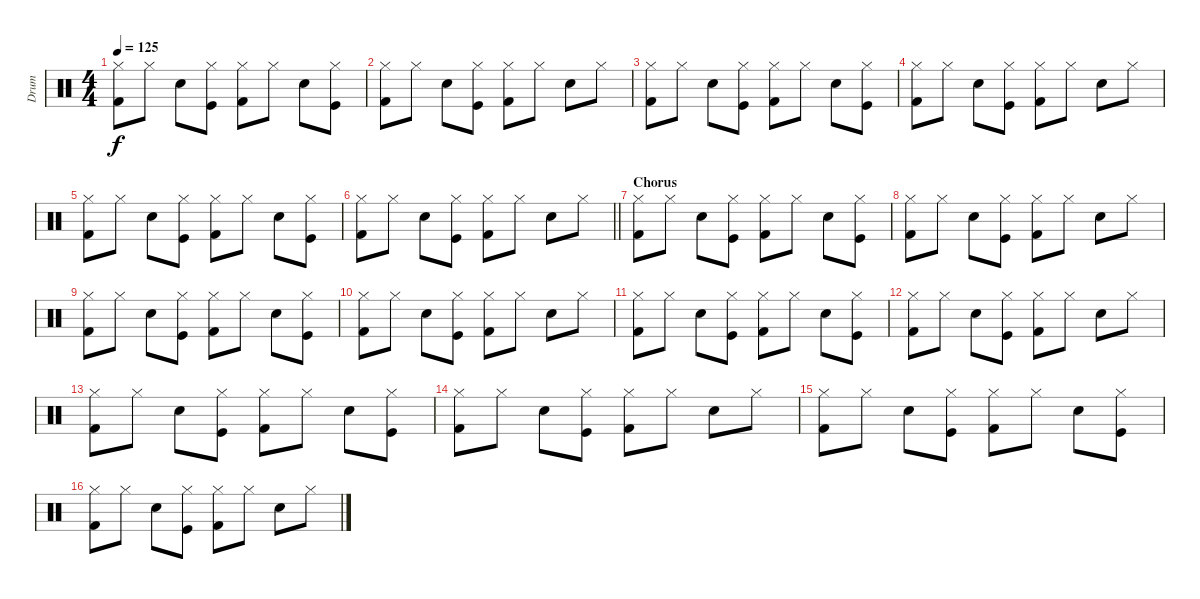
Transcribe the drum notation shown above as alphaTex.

\track ("Drum" "Drum") {instrument percussion}
\staff {score}
\articulation defaults
\ts (4 4)
\tempo 125
\clef neutral
\ks c
("Hi-Hat (closed)" "Kick (hit) 2").8{dy f} "Hi-Hat (closed)".8 "Electric Snare (hit)".8 ("Hi-Hat (closed)" "Kick (hit)").8 ("Hi-Hat (closed)" "Kick (hit) 2").8 "Hi-Hat (closed)".8 "Electric Snare (hit)".8 ("Hi-Hat (closed)" "Kick (hit)").8 |
("Hi-Hat (closed)" "Kick (hit) 2").8 "Hi-Hat (closed)".8 "Electric Snare (hit)".8 ("Hi-Hat (closed)" "Kick (hit)").8 ("Hi-Hat (closed)" "Kick (hit) 2").8 "Hi-Hat (closed)".8 "Electric Snare (hit)".8 "Hi-Hat (closed)".8 |
("Hi-Hat (closed)" "Kick (hit) 2").8 "Hi-Hat (closed)".8 "Electric Snare (hit)".8 ("Hi-Hat (closed)" "Kick (hit)").8 ("Hi-Hat (closed)" "Kick (hit) 2").8 "Hi-Hat (closed)".8 "Electric Snare (hit)".8 ("Hi-Hat (closed)" "Kick (hit)").8 |
("Hi-Hat (closed)" "Kick (hit) 2").8 "Hi-Hat (closed)".8 "Electric Snare (hit)".8 ("Hi-Hat (closed)" "Kick (hit)").8 ("Hi-Hat (closed)" "Kick (hit) 2").8 "Hi-Hat (closed)".8 "Electric Snare (hit)".8 "Hi-Hat (closed)".8 |
("Hi-Hat (closed)" "Kick (hit) 2").8 "Hi-Hat (closed)".8 "Electric Snare (hit)".8 ("Hi-Hat (closed)" "Kick (hit)").8 ("Hi-Hat (closed)" "Kick (hit) 2").8 "Hi-Hat (closed)".8 "Electric Snare (hit)".8 ("Hi-Hat (closed)" "Kick (hit)").8 |
\barLineRight lightlight
("Hi-Hat (closed)" "Kick (hit) 2").8 "Hi-Hat (closed)".8 "Electric Snare (hit)".8 ("Hi-Hat (closed)" "Kick (hit)").8 ("Hi-Hat (closed)" "Kick (hit) 2").8 "Hi-Hat (closed)".8 "Electric Snare (hit)".8 "Hi-Hat (closed)".8 |
\section ("" "Chorus")
("Hi-Hat (closed)" "Kick (hit) 2").8 "Hi-Hat (closed)".8 "Electric Snare (hit)".8 ("Hi-Hat (closed)" "Kick (hit)").8 ("Hi-Hat (closed)" "Kick (hit) 2").8 "Hi-Hat (closed)".8 "Electric Snare (hit)".8 ("Hi-Hat (closed)" "Kick (hit)").8 |
("Hi-Hat (closed)" "Kick (hit) 2").8 "Hi-Hat (closed)".8 "Electric Snare (hit)".8 ("Hi-Hat (closed)" "Kick (hit)").8 ("Hi-Hat (closed)" "Kick (hit) 2").8 "Hi-Hat (closed)".8 "Electric Snare (hit)".8 "Hi-Hat (closed)".8 |
("Hi-Hat (closed)" "Kick (hit) 2").8 "Hi-Hat (closed)".8 "Electric Snare (hit)".8 ("Hi-Hat (closed)" "Kick (hit)").8 ("Hi-Hat (closed)" "Kick (hit) 2").8 "Hi-Hat (closed)".8 "Electric Snare (hit)".8 ("Hi-Hat (closed)" "Kick (hit)").8 |
("Hi-Hat (closed)" "Kick (hit) 2").8 "Hi-Hat (closed)".8 "Electric Snare (hit)".8 ("Hi-Hat (closed)" "Kick (hit)").8 ("Hi-Hat (closed)" "Kick (hit) 2").8 "Hi-Hat (closed)".8 "Electric Snare (hit)".8 "Hi-Hat (closed)".8 |
("Hi-Hat (closed)" "Kick (hit) 2").8 "Hi-Hat (closed)".8 "Electric Snare (hit)".8 ("Hi-Hat (closed)" "Kick (hit)").8 ("Hi-Hat (closed)" "Kick (hit) 2").8 "Hi-Hat (closed)".8 "Electric Snare (hit)".8 ("Hi-Hat (closed)" "Kick (hit)").8 |
("Hi-Hat (closed)" "Kick (hit) 2").8 "Hi-Hat (closed)".8 "Electric Snare (hit)".8 ("Hi-Hat (closed)" "Kick (hit)").8 ("Hi-Hat (closed)" "Kick (hit) 2").8 "Hi-Hat (closed)".8 "Electric Snare (hit)".8 "Hi-Hat (closed)".8 |
("Hi-Hat (closed)" "Kick (hit) 2").8 "Hi-Hat (closed)".8 "Electric Snare (hit)".8 ("Hi-Hat (closed)" "Kick (hit)").8 ("Hi-Hat (closed)" "Kick (hit) 2").8 "Hi-Hat (closed)".8 "Electric Snare (hit)".8 ("Hi-Hat (closed)" "Kick (hit)").8 |
("Hi-Hat (closed)" "Kick (hit) 2").8 "Hi-Hat (closed)".8 "Electric Snare (hit)".8 ("Hi-Hat (closed)" "Kick (hit)").8 ("Hi-Hat (closed)" "Kick (hit) 2").8 "Hi-Hat (closed)".8 "Electric Snare (hit)".8 "Hi-Hat (closed)".8 |
("Hi-Hat (closed)" "Kick (hit) 2").8 "Hi-Hat (closed)".8 "Electric Snare (hit)".8 ("Hi-Hat (closed)" "Kick (hit)").8 ("Hi-Hat (closed)" "Kick (hit) 2").8 "Hi-Hat (closed)".8 "Electric Snare (hit)".8 ("Hi-Hat (closed)" "Kick (hit)").8 |
("Hi-Hat (closed)" "Kick (hit) 2").8 "Hi-Hat (closed)".8 "Electric Snare (hit)".8 ("Hi-Hat (closed)" "Kick (hit)").8 ("Hi-Hat (closed)" "Kick (hit) 2").8 "Hi-Hat (closed)".8 "Electric Snare (hit)".8 "Hi-Hat (closed)".8
